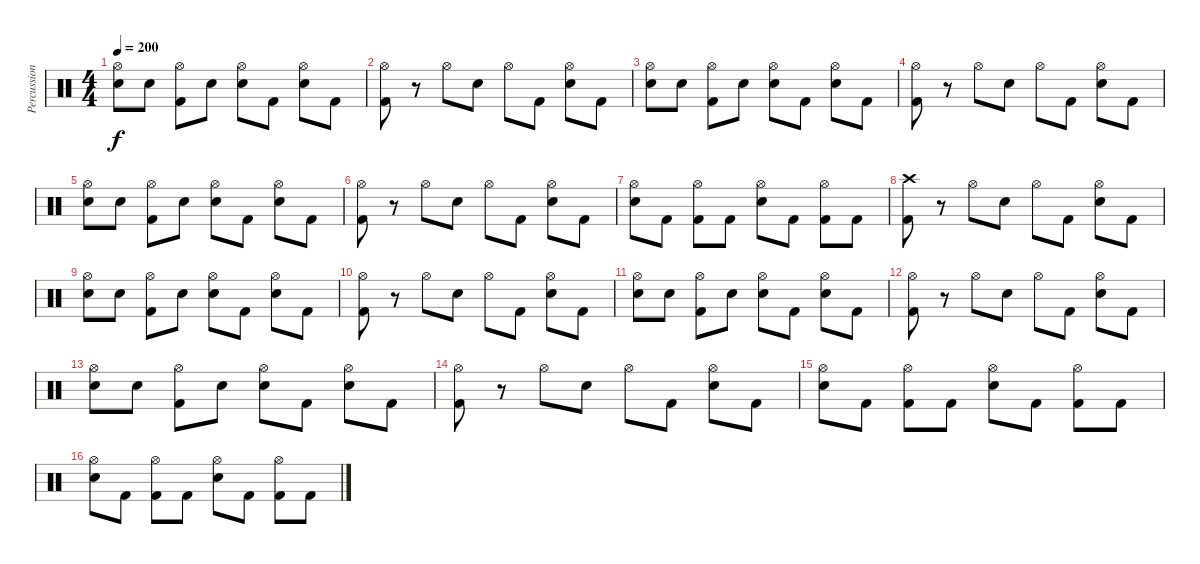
\track ("Percussion" "Percussion") {instrument percussion}
\staff {score}
\articulation defaults
\ts (4 4)
\tempo 200
\clef neutral
\ks c
("Hi-Hat (open)" "Electric Snare (hit)").8{dy f} "Electric Snare (hit)".8 ("Hi-Hat (open)" "Kick (hit) 2").8 "Electric Snare (hit)".8 ("Hi-Hat (open)" "Electric Snare (hit)").8 "Kick (hit) 2".8 ("Hi-Hat (open)" "Electric Snare (hit)").8 "Kick (hit) 2".8 |
("Hi-Hat (open)" "Kick (hit) 2").8 r.8 "Hi-Hat (open)".8 "Electric Snare (hit)".8 "Hi-Hat (open)".8 "Kick (hit) 2".8 ("Hi-Hat (open)" "Electric Snare (hit)").8 "Kick (hit) 2".8 |
("Hi-Hat (open)" "Electric Snare (hit)").8 "Electric Snare (hit)".8 ("Hi-Hat (open)" "Kick (hit) 2").8 "Electric Snare (hit)".8 ("Hi-Hat (open)" "Electric Snare (hit)").8 "Kick (hit) 2".8 ("Hi-Hat (open)" "Electric Snare (hit)").8 "Kick (hit) 2".8 |
("Hi-Hat (open)" "Kick (hit) 2").8 r.8 "Hi-Hat (open)".8 "Electric Snare (hit)".8 "Hi-Hat (open)".8 "Kick (hit) 2".8 ("Hi-Hat (open)" "Electric Snare (hit)").8 "Kick (hit) 2".8 |
("Hi-Hat (open)" "Electric Snare (hit)").8 "Electric Snare (hit)".8 ("Hi-Hat (open)" "Kick (hit) 2").8 "Electric Snare (hit)".8 ("Hi-Hat (open)" "Electric Snare (hit)").8 "Kick (hit) 2".8 ("Hi-Hat (open)" "Electric Snare (hit)").8 "Kick (hit) 2".8 |
("Hi-Hat (open)" "Kick (hit) 2").8 r.8 "Hi-Hat (open)".8 "Electric Snare (hit)".8 "Hi-Hat (open)".8 "Kick (hit) 2".8 ("Hi-Hat (open)" "Electric Snare (hit)").8 "Kick (hit) 2".8 |
("Hi-Hat (open)" "Electric Snare (hit)").8 "Kick (hit) 2".8 ("Hi-Hat (open)" "Kick (hit) 2").8 "Kick (hit) 2".8 ("Hi-Hat (open)" "Electric Snare (hit)").8 "Kick (hit) 2".8 ("Hi-Hat (open)" "Kick (hit) 2").8 "Kick (hit) 2".8 |
("Crash high (hit)" "Kick (hit) 2").8 r.8 "Hi-Hat (open)".8 "Electric Snare (hit)".8 "Hi-Hat (open)".8 "Kick (hit) 2".8 ("Hi-Hat (open)" "Electric Snare (hit)").8 "Kick (hit) 2".8 |
("Hi-Hat (open)" "Electric Snare (hit)").8 "Electric Snare (hit)".8 ("Hi-Hat (open)" "Kick (hit) 2").8 "Electric Snare (hit)".8 ("Hi-Hat (open)" "Electric Snare (hit)").8 "Kick (hit) 2".8 ("Hi-Hat (open)" "Electric Snare (hit)").8 "Kick (hit) 2".8 |
("Hi-Hat (open)" "Kick (hit) 2").8 r.8 "Hi-Hat (open)".8 "Electric Snare (hit)".8 "Hi-Hat (open)".8 "Kick (hit) 2".8 ("Hi-Hat (open)" "Electric Snare (hit)").8 "Kick (hit) 2".8 |
("Hi-Hat (open)" "Electric Snare (hit)").8 "Electric Snare (hit)".8 ("Hi-Hat (open)" "Kick (hit) 2").8 "Electric Snare (hit)".8 ("Hi-Hat (open)" "Electric Snare (hit)").8 "Kick (hit) 2".8 ("Hi-Hat (open)" "Electric Snare (hit)").8 "Kick (hit) 2".8 |
("Hi-Hat (open)" "Kick (hit) 2").8 r.8 "Hi-Hat (open)".8 "Electric Snare (hit)".8 "Hi-Hat (open)".8 "Kick (hit) 2".8 ("Hi-Hat (open)" "Electric Snare (hit)").8 "Kick (hit) 2".8 |
("Hi-Hat (open)" "Electric Snare (hit)").8 "Electric Snare (hit)".8 ("Hi-Hat (open)" "Kick (hit) 2").8 "Electric Snare (hit)".8 ("Hi-Hat (open)" "Electric Snare (hit)").8 "Kick (hit) 2".8 ("Hi-Hat (open)" "Electric Snare (hit)").8 "Kick (hit) 2".8 |
("Hi-Hat (open)" "Kick (hit) 2").8 r.8 "Hi-Hat (open)".8 "Electric Snare (hit)".8 "Hi-Hat (open)".8 "Kick (hit) 2".8 ("Hi-Hat (open)" "Electric Snare (hit)").8 "Kick (hit) 2".8 |
("Hi-Hat (open)" "Electric Snare (hit)").8 "Kick (hit) 2".8 ("Hi-Hat (open)" "Kick (hit) 2").8 "Kick (hit) 2".8 ("Hi-Hat (open)" "Electric Snare (hit)").8 "Kick (hit) 2".8 ("Hi-Hat (open)" "Kick (hit) 2").8 "Kick (hit) 2".8 |
("Hi-Hat (open)" "Electric Snare (hit)").8 "Kick (hit) 2".8 ("Hi-Hat (open)" "Kick (hit) 2").8 "Kick (hit) 2".8 ("Hi-Hat (open)" "Electric Snare (hit)").8 "Kick (hit) 2".8 ("Hi-Hat (open)" "Kick (hit) 2").8 "Kick (hit) 2".8
